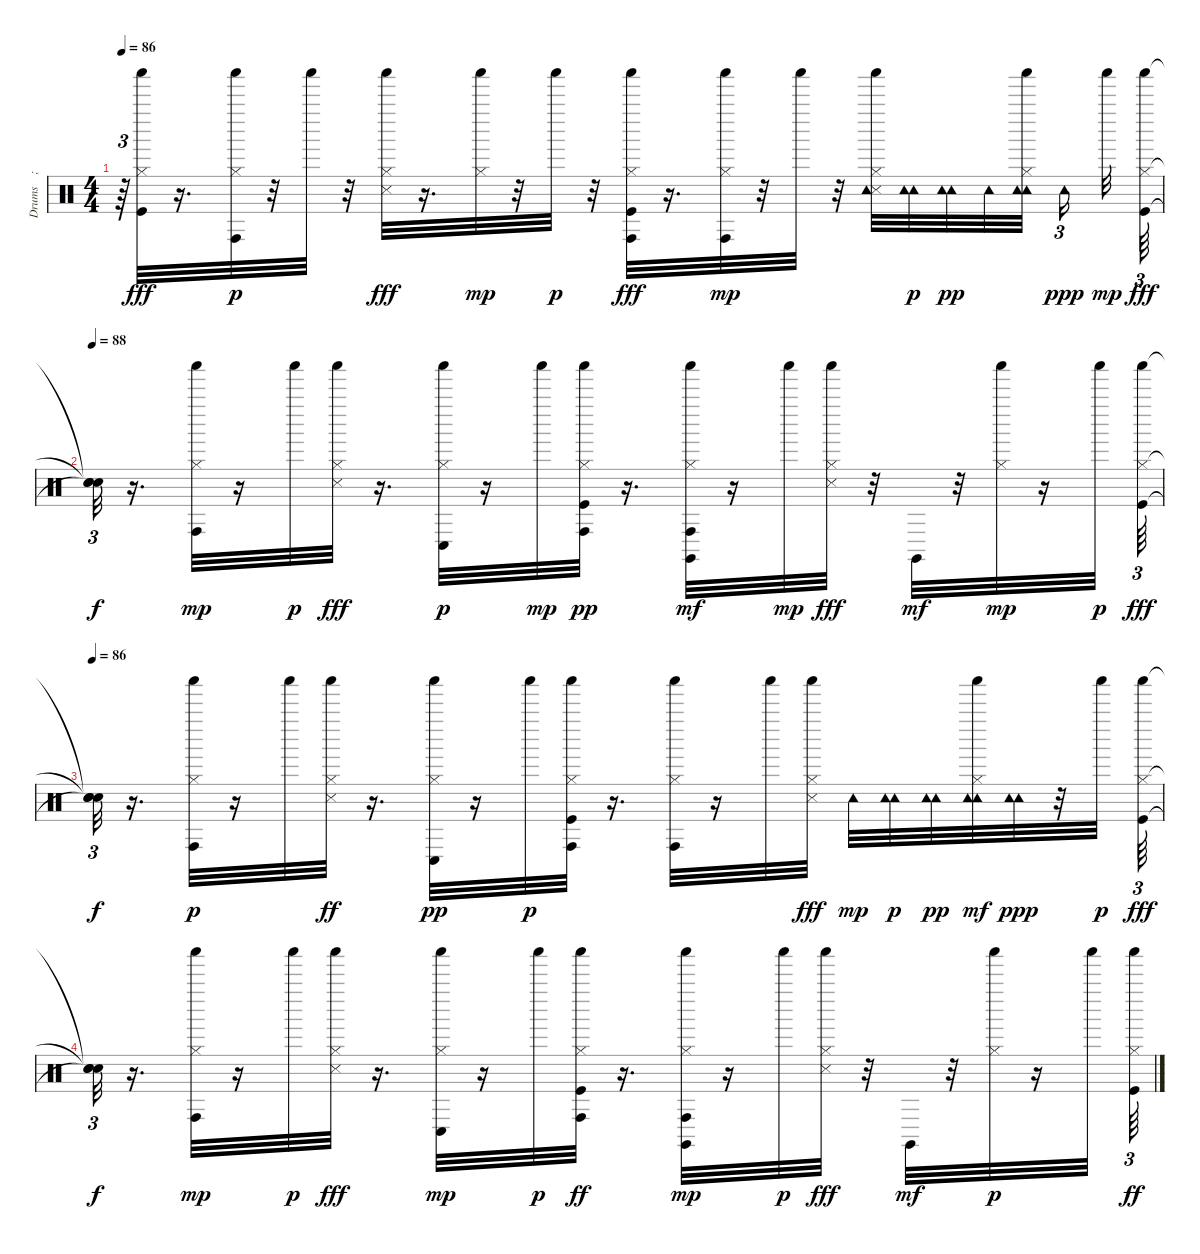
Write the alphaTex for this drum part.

\track ("Drums    ; Standard" "Drums    ;") {instrument percussion}
\staff {score}
\articulation defaults
\ts (4 4)
\tempo 86
\clef neutral
\ks c
r.64{tu (3 2) dy p} ("Kick (hit)" "Shaker (hit)" "Hi-Hat (closed)").32{dy fff} r.16{d} ("Shaker (hit)" "Hi-Hat (closed)" "Conga high (hit)").32{dy p} r.32 "Shaker (hit)".32 r.32 ("Shaker (hit)" "Hi-Hat (closed)" "Snare (side stick) 3").32{dy fff} r.16{d} ("Shaker (hit)" "Hi-Hat (closed)").32{dy mp} r.32 "Shaker (hit)".32{dy p} r.32 ("Kick (hit)" "Shaker (hit)" "Conga high (hit)" "Hi-Hat (closed)").32{dy fff} r.16{d} ("Conga high (hit)" "Shaker (hit)" "Hi-Hat (closed)").32{dy mp} r.32 "Shaker (hit)".32 r.32 ("Snare (side stick) 3" "Shaker (hit)" "Hi-Hat (closed)" "Tambourine (hit)").32 ("Tambourine (hit)" "Tambourine (hit)").32{dy p} ("Tambourine (hit)" "Tambourine (hit)").32{dy pp} "Tambourine (hit)".32 ("Tambourine (hit)" "Shaker (hit)" "Hi-Hat (closed)" "Tambourine (hit)").32 "Tambourine (hit)".16{tu (3 2) dy ppp} "Shaker (hit)".32{dy mp} ("Kick (hit)" "Shaker (hit)" "Hi-Hat (closed)").64{tu (3 2) dy fff} |
\tempo 88
("Snare (hit)"{t} "Snare (hit)"{t} "Snare (hit)"{t}).32{tu (3 2) dy f} r.16{d} ("Conga high (hit)" "Shaker (hit)" "Hi-Hat (closed)").32{dy mp} r.16 "Shaker (hit)".32{dy p} ("Shaker (hit)" "Hi-Hat (closed)" "Snare (side stick) 3").32{dy fff} r.16{d} ("Conga low (hit)" "Shaker (hit)" "Hi-Hat (closed)").32{dy p} r.16 "Shaker (hit)".32{dy mp} ("Kick (hit)" "Hi-Hat (closed)" "Conga high (hit)" "Shaker (hit)").32{dy pp} r.16{d} ("Claves (hit)" "Conga high (hit)" "Shaker (hit)" "Hi-Hat (closed)").32{dy mf} r.16 "Shaker (hit)".32{dy mp} ("Snare (side stick) 3" "Shaker (hit)" "Hi-Hat (closed)").32{dy fff} r.32 "Claves (hit)".32{dy mf} r.32 ("Shaker (hit)" "Hi-Hat (closed)").32{dy mp} r.16 "Shaker (hit)".32{dy p} ("Shaker (hit)" "Kick (hit)" "Hi-Hat (closed)").64{tu (3 2) dy fff} |
\tempo 86
("Snare (hit)"{t} "Snare (hit)"{t} "Snare (hit)"{t}).32{tu (3 2) dy f} r.16{d} ("Hi-Hat (closed)" "Shaker (hit)" "Conga high (hit)").32{dy p} r.16 "Shaker (hit)".32 ("Snare (side stick) 3" "Hi-Hat (closed)" "Shaker (hit)").32{dy ff} r.16{d} ("Hi-Hat (closed)" "Shaker (hit)" "Conga low (hit)").32{dy pp} r.16 "Shaker (hit)".32{dy p} ("Kick (hit)" "Shaker (hit)" "Hi-Hat (closed)" "Conga high (hit)").32 r.16{d} ("Shaker (hit)" "Hi-Hat (closed)" "Conga high (hit)").32 r.16 "Shaker (hit)".32 ("Hi-Hat (closed)" "Shaker (hit)" "Snare (side stick) 3").32{dy fff} "Tambourine (hit)".32{dy mp} ("Tambourine (hit)" "Tambourine (hit)").32{dy p} ("Tambourine (hit)" "Tambourine (hit)").32{dy pp} ("Tambourine (hit)" "Tambourine (hit)" "Shaker (hit)" "Hi-Hat (closed)").32{dy mf} ("Tambourine (hit)" "Tambourine (hit)").32{dy ppp} r.32 "Shaker (hit)".32{dy p} ("Shaker (hit)" "Kick (hit)" "Hi-Hat (closed)").64{tu (3 2) dy fff} |
("Snare (hit)"{t} "Snare (hit)"{t} "Snare (hit)"{t}).32{tu (3 2) dy f} r.16{d} ("Conga high (hit)" "Shaker (hit)" "Hi-Hat (closed)").32{dy mp} r.16 "Shaker (hit)".32{dy p} ("Shaker (hit)" "Snare (side stick) 3" "Hi-Hat (closed)").32{dy fff} r.16{d} ("Conga low (hit)" "Shaker (hit)" "Hi-Hat (closed)").32{dy mp} r.16 "Shaker (hit)".32{dy p} ("Conga high (hit)" "Kick (hit)" "Shaker (hit)" "Hi-Hat (closed)").32{dy ff} r.16{d} ("Claves (hit)" "Conga high (hit)" "Shaker (hit)" "Hi-Hat (closed)").32{dy mp} r.16 "Shaker (hit)".32{dy p} ("Snare (side stick) 3" "Shaker (hit)" "Hi-Hat (closed)").32{dy fff} r.32 "Claves (hit)".32{dy mf} r.32 ("Hi-Hat (closed)" "Shaker (hit)").32{dy p} r.16 "Shaker (hit)".32 ("Kick (hit)" "Hi-Hat (closed)" "Shaker (hit)").64{tu (3 2) dy ff}
